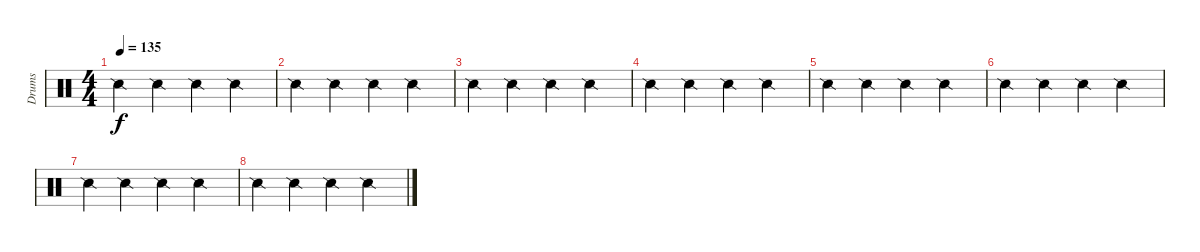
\track ("Drums" "Drums") {instrument percussion}
\staff {score}
\articulation defaults
\ts (4 4)
\tempo 135
\clef neutral
\ks c "Snare (side stick) 2".4{dy f} "Snare (side stick) 2".4 "Snare (side stick) 2".4 "Snare (side stick) 2".4
|
"Snare (side stick) 2".4 "Snare (side stick) 2".4 "Snare (side stick) 2".4 "Snare (side stick) 2".4 |
"Snare (side stick) 2".4 "Snare (side stick) 2".4 "Snare (side stick) 2".4 "Snare (side stick) 2".4 |
"Snare (side stick) 2".4 "Snare (side stick) 2".4 "Snare (side stick) 2".4 "Snare (side stick) 2".4 |
"Snare (side stick) 2".4 "Snare (side stick) 2".4 "Snare (side stick) 2".4 "Snare (side stick) 2".4 |
"Snare (side stick) 2".4 "Snare (side stick) 2".4 "Snare (side stick) 2".4 "Snare (side stick) 2".4 |
"Snare (side stick) 2".4 "Snare (side stick) 2".4 "Snare (side stick) 2".4 "Snare (side stick) 2".4 |
"Snare (side stick) 2".4 "Snare (side stick) 2".4 "Snare (side stick) 2".4 "Snare (side stick) 2".4
